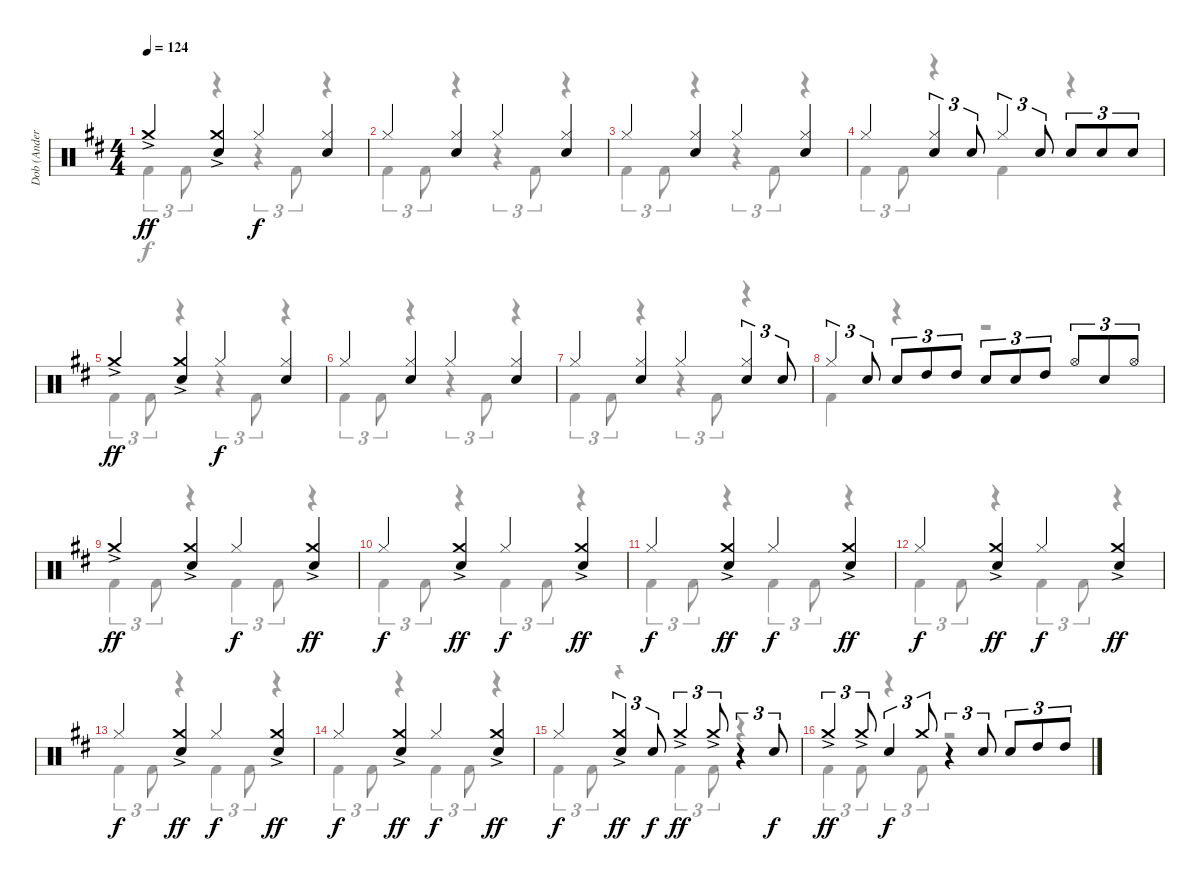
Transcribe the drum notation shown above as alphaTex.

\track ("Dob (Anders Johansson)" "Dob (Ander") {instrument percussion}
\staff {score}
\articulation defaults
\voice
\ts (4 4)
\tempo 124
\clef neutral
\ks d "Crash medium (hit)"{ac}.4{dy ff}
("Crash medium (hit)"{ac} "Electric Snare (hit)").4 "Hi-Hat (closed)".4{dy f} ("Hi-Hat (closed)" "Electric Snare (hit)").4 |
"Hi-Hat (closed)".4 ("Hi-Hat (closed)" "Electric Snare (hit)").4 "Hi-Hat (closed)".4 ("Hi-Hat (closed)" "Electric Snare (hit)").4 |
"Hi-Hat (closed)".4 ("Hi-Hat (closed)" "Electric Snare (hit)").4 "Hi-Hat (closed)".4 ("Hi-Hat (closed)" "Electric Snare (hit)").4 |
"Hi-Hat (closed)".4 ("Hi-Hat (closed)" "Electric Snare (hit)").4{tu (3 2)} "Electric Snare (hit)".8{tu (3 2)} "Hi-Hat (closed)".4{tu (3 2)} "Electric Snare (hit)".8{tu (3 2)} "Electric Snare (hit)".8{tu (3 2)} "Electric Snare (hit)".8{tu (3 2)} "Electric Snare (hit)".8{tu (3 2)} |
"Crash medium (hit)"{ac}.4{dy ff} ("Crash medium (hit)"{ac} "Electric Snare (hit)").4 "Hi-Hat (closed)".4{dy f} ("Hi-Hat (closed)" "Electric Snare (hit)").4 |
"Hi-Hat (closed)".4 ("Hi-Hat (closed)" "Electric Snare (hit)").4 "Hi-Hat (closed)".4 ("Hi-Hat (closed)" "Electric Snare (hit)").4 |
"Hi-Hat (closed)".4 ("Hi-Hat (closed)" "Electric Snare (hit)").4 "Hi-Hat (closed)".4 ("Hi-Hat (closed)" "Electric Snare (hit)").4{tu (3 2)} "Electric Snare (hit)".8{tu (3 2)} |
"Hi-Hat (closed)".4{tu (3 2)} "Electric Snare (hit)".8{tu (3 2)} "Electric Snare (hit)".8{tu (3 2)} "High Tom (hit)".8{tu (3 2)} "High Tom (hit)".8{tu (3 2)} "Electric Snare (hit)".8{tu (3 2)} "Electric Snare (hit)".8{tu (3 2)} "High Tom (hit)".8{tu (3 2)} "Hi-Hat (open)".8{tu (3 2)} "Electric Snare (hit)".8{tu (3 2)} "Hi-Hat (open)".8{tu (3 2)} |
"Crash medium (hit)"{ac}.4{dy ff} ("Crash medium (hit)"{ac} "Electric Snare (hit)").4 "Hi-Hat (closed)".4{dy f} ("Crash medium (hit)"{ac} "Electric Snare (hit)").4{dy ff} |
"Hi-Hat (closed)".4{dy f} ("Crash medium (hit)"{ac} "Electric Snare (hit)").4{dy ff} "Hi-Hat (closed)".4{dy f} ("Crash medium (hit)"{ac} "Electric Snare (hit)").4{dy ff} |
"Hi-Hat (closed)".4{dy f} ("Crash medium (hit)"{ac} "Electric Snare (hit)").4{dy ff} "Hi-Hat (closed)".4{dy f} ("Crash medium (hit)"{ac} "Electric Snare (hit)").4{dy ff} |
"Hi-Hat (closed)".4{dy f} ("Crash medium (hit)"{ac} "Electric Snare (hit)").4{dy ff} "Hi-Hat (closed)".4{dy f} ("Crash medium (hit)"{ac} "Electric Snare (hit)").4{dy ff} |
"Hi-Hat (closed)".4{dy f} ("Crash medium (hit)"{ac} "Electric Snare (hit)").4{dy ff} "Hi-Hat (closed)".4{dy f} ("Crash medium (hit)"{ac} "Electric Snare (hit)").4{dy ff} |
"Hi-Hat (closed)".4{dy f} ("Crash medium (hit)"{ac} "Electric Snare (hit)").4{dy ff} "Hi-Hat (closed)".4{dy f} ("Crash medium (hit)"{ac} "Electric Snare (hit)").4{dy ff} |
"Hi-Hat (closed)".4{dy f} ("Crash medium (hit)"{ac} "Electric Snare (hit)").4{tu (3 2) dy ff} "Electric Snare (hit)".8{tu (3 2) dy f} "Crash medium (hit)"{ac}.4{tu (3 2) dy ff} "Crash medium (hit)"{ac}.8{tu (3 2)} r.4{tu (3 2)} "Electric Snare (hit)".8{tu (3 2) dy f} |
"Crash medium (hit)"{ac}.4{tu (3 2) dy ff} "Crash medium (hit)"{ac}.8{tu (3 2)} "Electric Snare (hit)".4{tu (3 2) dy f} "Crash medium (hit)".8{tu (3 2)} r.4{tu (3 2)} "Electric Snare (hit)".8{tu (3 2)} "Electric Snare (hit)".8{tu (3 2)} "High Tom (hit)".8{tu (3 2)} "High Tom (hit)".8{tu (3 2)}
\voice
\clef neutral
\ottava regular
\simile none
\ks d "Kick (hit) 2".4{tu (3 2) dy f} "Kick (hit) 2".8{tu (3 2)}
r.4 r.4{tu (3 2)} "Kick (hit) 2".8{tu (3 2)} r.4 |
"Kick (hit) 2".4{tu (3 2)} "Kick (hit) 2".8{tu (3 2)} r.4 r.4{tu (3 2)} "Kick (hit) 2".8{tu (3 2)} r.4 |
"Kick (hit) 2".4{tu (3 2)} "Kick (hit) 2".8{tu (3 2)} r.4 r.4{tu (3 2)} "Kick (hit) 2".8{tu (3 2)} r.4 |
"Kick (hit) 2".4{tu (3 2)} "Kick (hit) 2".8{tu (3 2)} r.4 "Kick (hit) 2".4 r.4 |
"Kick (hit) 2".4{tu (3 2)} "Kick (hit) 2".8{tu (3 2)} r.4 r.4{tu (3 2)} "Kick (hit) 2".8{tu (3 2)} r.4 |
"Kick (hit) 2".4{tu (3 2)} "Kick (hit) 2".8{tu (3 2)} r.4 r.4{tu (3 2)} "Kick (hit) 2".8{tu (3 2)} r.4 |
"Kick (hit) 2".4{tu (3 2)} "Kick (hit) 2".8{tu (3 2)} r.4 r.4{tu (3 2)} "Kick (hit) 2".8{tu (3 2)} r.4 |
"Kick (hit) 2".4 r.4 r.2 |
"Kick (hit) 2".4{tu (3 2)} "Kick (hit) 2".8{tu (3 2)} r.4 "Kick (hit) 2".4{tu (3 2)} "Kick (hit) 2".8{tu (3 2)} r.4 |
"Kick (hit) 2".4{tu (3 2)} "Kick (hit) 2".8{tu (3 2)} r.4 "Kick (hit) 2".4{tu (3 2)} "Kick (hit) 2".8{tu (3 2)} r.4 |
"Kick (hit) 2".4{tu (3 2)} "Kick (hit) 2".8{tu (3 2)} r.4 "Kick (hit) 2".4{tu (3 2)} "Kick (hit) 2".8{tu (3 2)} r.4 |
"Kick (hit) 2".4{tu (3 2)} "Kick (hit) 2".8{tu (3 2)} r.4 "Kick (hit) 2".4{tu (3 2)} "Kick (hit) 2".8{tu (3 2)} r.4 |
"Kick (hit) 2".4{tu (3 2)} "Kick (hit) 2".8{tu (3 2)} r.4 "Kick (hit) 2".4{tu (3 2)} "Kick (hit) 2".8{tu (3 2)} r.4 |
"Kick (hit) 2".4{tu (3 2)} "Kick (hit) 2".8{tu (3 2)} r.4 "Kick (hit) 2".4{tu (3 2)} "Kick (hit) 2".8{tu (3 2)} r.4 |
"Kick (hit) 2".4{tu (3 2)} "Kick (hit) 2".8{tu (3 2)} r.4 "Kick (hit) 2".4{tu (3 2)} "Kick (hit) 2".8{tu (3 2)} r.4 |
"Kick (hit) 2".4{tu (3 2)} "Kick (hit) 2".8{tu (3 2)} r.4{tu (3 2)} "Kick (hit) 2".8{tu (3 2)} r.2
